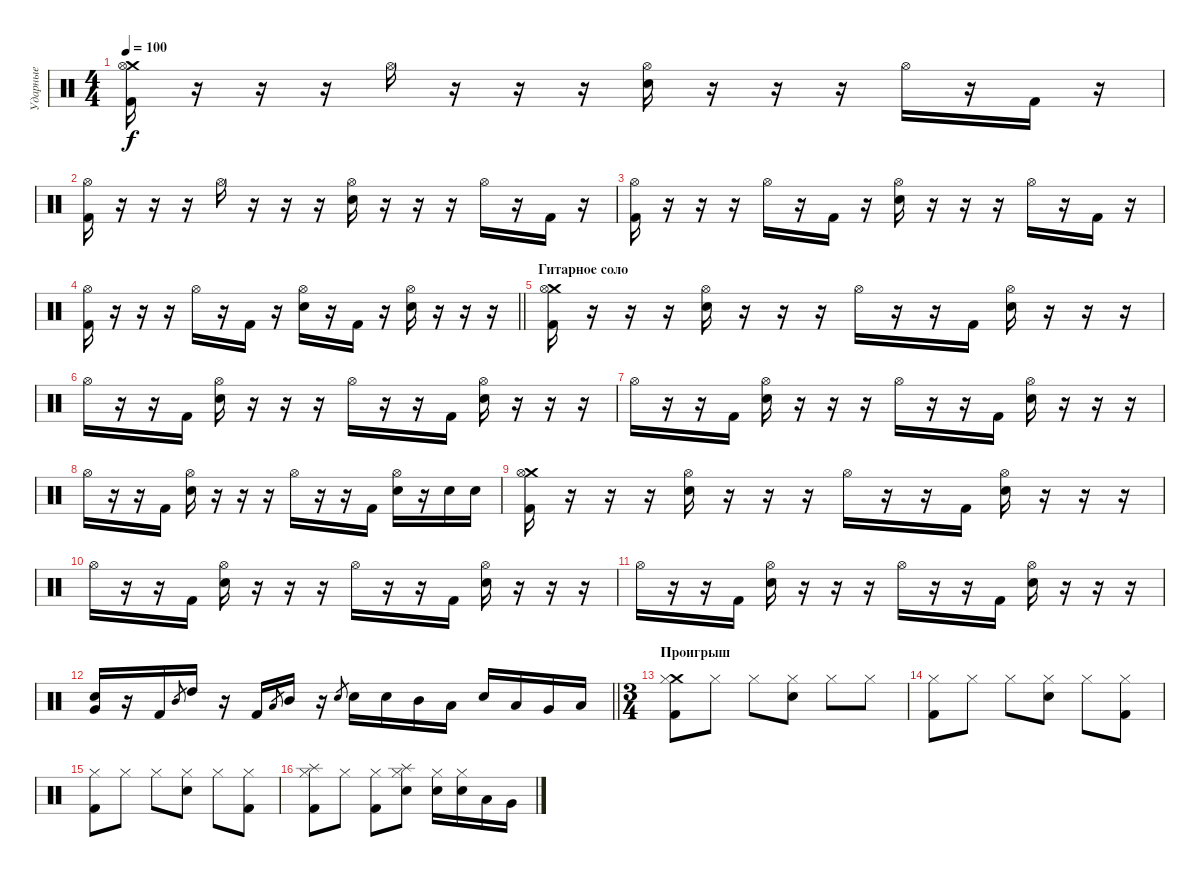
\track ("Ударные" "Ударные") {instrument percussion}
\staff {score}
\articulation defaults
\ts (4 4)
\tempo 100
\clef neutral
\ks aminor
("Crash medium (hit)" "Kick (hit) 2" "Hi-Hat (open)").16{dy f} r.16 r.16 r.16 "Hi-Hat (open)".16 r.16 r.16 r.16 ("Electric Snare (hit)" "Hi-Hat (open)").16 r.16 r.16 r.16 "Hi-Hat (open)".16 r.16 "Kick (hit) 2".16 r.16 |
("Kick (hit) 2" "Hi-Hat (open)").16 r.16 r.16 r.16 "Hi-Hat (open)".16 r.16 r.16 r.16 ("Electric Snare (hit)" "Hi-Hat (open)").16 r.16 r.16 r.16 "Hi-Hat (open)".16 r.16 "Kick (hit) 2".16 r.16 |
("Kick (hit) 2" "Hi-Hat (open)").16 r.16 r.16 r.16 "Hi-Hat (open)".16 r.16 "Kick (hit) 2".16 r.16 ("Electric Snare (hit)" "Hi-Hat (open)").16 r.16 r.16 r.16 "Hi-Hat (open)".16 r.16 "Kick (hit) 2".16 r.16 |
\barLineRight lightlight
("Kick (hit) 2" "Hi-Hat (open)").16 r.16 r.16 r.16 "Hi-Hat (open)".16 r.16 "Kick (hit) 2".16 r.16 ("Electric Snare (hit)" "Hi-Hat (open)").16 r.16 "Kick (hit) 2".16 r.16 ("Electric Snare (hit)" "Hi-Hat (open)").16 r.16 r.16 r.16 |
\section ("" "Гитарное соло")
("Crash medium (hit)" "Kick (hit) 2" "Hi-Hat (open)").16 r.16 r.16 r.16 ("Electric Snare (hit)" "Hi-Hat (open)").16 r.16 r.16 r.16 "Hi-Hat (open)".16 r.16 r.16 "Kick (hit) 2".16 ("Electric Snare (hit)" "Hi-Hat (open)").16 r.16 r.16 r.16 |
"Hi-Hat (open)".16 r.16 r.16 "Kick (hit) 2".16 ("Electric Snare (hit)" "Hi-Hat (open)").16 r.16 r.16 r.16 "Hi-Hat (open)".16 r.16 r.16 "Kick (hit) 2".16 ("Electric Snare (hit)" "Hi-Hat (open)").16 r.16 r.16 r.16 |
"Hi-Hat (open)".16 r.16 r.16 "Kick (hit) 2".16 ("Electric Snare (hit)" "Hi-Hat (open)").16 r.16 r.16 r.16 "Hi-Hat (open)".16 r.16 r.16 "Kick (hit) 2".16 ("Electric Snare (hit)" "Hi-Hat (open)").16 r.16 r.16 r.16 |
"Hi-Hat (open)".16 r.16 r.16 "Kick (hit) 2".16 ("Electric Snare (hit)" "Hi-Hat (open)").16 r.16 r.16 r.16 "Hi-Hat (open)".16 r.16 r.16 "Kick (hit) 2".16 ("Electric Snare (hit)" "Hi-Hat (open)").16 r.16 "Electric Snare (hit)".16 "Electric Snare (hit)".16 |
("Crash medium (hit)" "Kick (hit) 2" "Hi-Hat (open)").16 r.16 r.16 r.16 ("Electric Snare (hit)" "Hi-Hat (open)").16 r.16 r.16 r.16 "Hi-Hat (open)".16 r.16 r.16 "Kick (hit) 2".16 ("Electric Snare (hit)" "Hi-Hat (open)").16 r.16 r.16 r.16 |
"Hi-Hat (open)".16 r.16 r.16 "Kick (hit) 2".16 ("Electric Snare (hit)" "Hi-Hat (open)").16 r.16 r.16 r.16 "Hi-Hat (open)".16 r.16 r.16 "Kick (hit) 2".16 ("Electric Snare (hit)" "Hi-Hat (open)").16 r.16 r.16 r.16 |
"Hi-Hat (open)".16 r.16 r.16 "Kick (hit) 2".16 ("Electric Snare (hit)" "Hi-Hat (open)").16 r.16 r.16 r.16 "Hi-Hat (open)".16 r.16 r.16 "Kick (hit) 2".16 ("Electric Snare (hit)" "Hi-Hat (open)").16 r.16 r.16 r.16 |
\barLineRight lightlight
("Very Low Tom (hit)" "Electric Snare (hit)").16 r.16 "Kick (hit) 2".16 "Mid Tom (hit)".8{gr} "High Tom (hit)".16 r.16 "Kick (hit) 2".16 "Low Tom (hit)".8{gr} "Mid Tom (hit)".16 r.16 "Electric Snare (hit)".8{gr} "Electric Snare (hit)".16 "Electric Snare (hit)".16 "Mid Tom (hit)".16 "Low Tom (hit)".16 "Electric Snare (hit)".16 "Low Tom (hit)".16 "Very Low Tom (hit)".16 "Low Floor Tom (hit)".16 |
\ts (3 4)
\section ("" "Проигрыш")
("Crash medium (hit)" "Kick (hit) 2" "Hi-Hat (closed)").8 "Hi-Hat (closed)".8 "Hi-Hat (closed)".8 ("Hi-Hat (closed)" "Electric Snare (hit)").8 "Hi-Hat (closed)".8 "Hi-Hat (closed)".8 |
("Kick (hit) 2" "Hi-Hat (closed)").8 "Hi-Hat (closed)".8 "Hi-Hat (closed)".8 ("Hi-Hat (closed)" "Electric Snare (hit)").8 "Hi-Hat (closed)".8 ("Hi-Hat (closed)" "Kick (hit) 2").8 |
("Kick (hit) 2" "Hi-Hat (closed)").8 "Hi-Hat (closed)".8 "Hi-Hat (closed)".8 ("Hi-Hat (closed)" "Electric Snare (hit)").8 "Hi-Hat (closed)".8 ("Hi-Hat (closed)" "Kick (hit) 2").8 |
("Splash (hit)" "Kick (hit) 2" "Hi-Hat (closed)").8 "Hi-Hat (closed)".8 ("Hi-Hat (closed)" "Kick (hit) 2").8 ("Hi-Hat (closed)" "Electric Snare (hit)" "Splash (hit)").8 ("Hi-Hat (closed)" "Electric Snare (hit)").16 ("Hi-Hat (closed)" "Electric Snare (hit)").16 "Low Tom (hit)".16 "Very Low Tom (hit)".16
